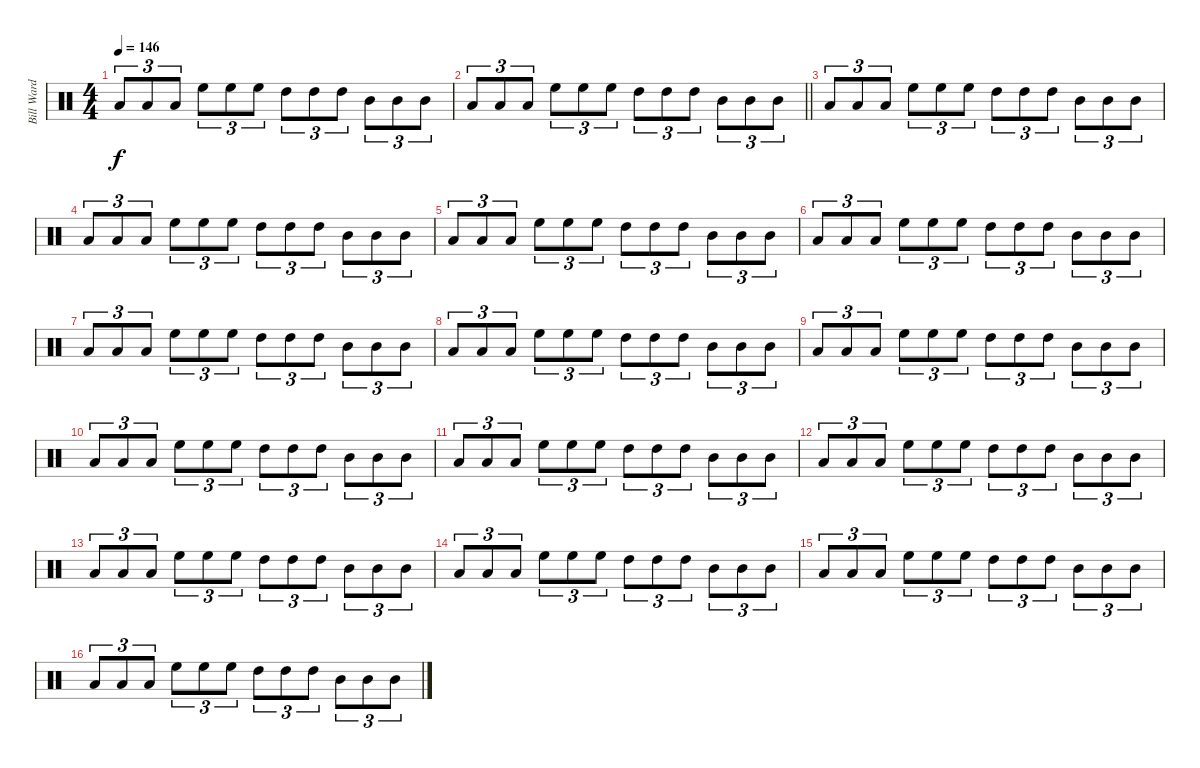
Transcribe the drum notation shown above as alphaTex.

\track ("Bill Ward - Drum Fills" "Bill Ward ") {instrument percussion}
\staff {score}
\articulation defaults
\ts (4 4)
\tempo 146
\clef neutral
\ks c "Low Tom (hit)".8{tu (3 2) dy f} "Low Tom (hit)".8{tu (3 2)} "Low Tom (hit)".8{tu (3 2)} "High Floor Tom (hit)".8{tu (3 2)} "High Floor Tom (hit)".8{tu (3 2)} "High Floor Tom (hit)".8{tu (3 2)} "High Tom (hit)".8{tu (3 2)} "High Tom (hit)".8{tu (3 2)} "High Tom (hit)".8{tu (3 2)} "Mid Tom (hit)".8{tu (3 2)} "Mid Tom (hit)".8{tu (3 2)} "Mid Tom (hit)".8{tu (3 2)}
|
\barLineRight lightlight "Low Tom (hit)".8{tu (3 2)} "Low Tom (hit)".8{tu (3 2)} "Low Tom (hit)".8{tu (3 2)} "High Floor Tom (hit)".8{tu (3 2)} "High Floor Tom (hit)".8{tu (3 2)} "High Floor Tom (hit)".8{tu (3 2)} "High Tom (hit)".8{tu (3 2)} "High Tom (hit)".8{tu (3 2)} "High Tom (hit)".8{tu (3 2)} "Mid Tom (hit)".8{tu (3 2)} "Mid Tom (hit)".8{tu (3 2)} "Mid Tom (hit)".8{tu (3 2)}
|
"Low Tom (hit)".8{tu (3 2)} "Low Tom (hit)".8{tu (3 2)} "Low Tom (hit)".8{tu (3 2)} "High Floor Tom (hit)".8{tu (3 2)} "High Floor Tom (hit)".8{tu (3 2)} "High Floor Tom (hit)".8{tu (3 2)} "High Tom (hit)".8{tu (3 2)} "High Tom (hit)".8{tu (3 2)} "High Tom (hit)".8{tu (3 2)} "Mid Tom (hit)".8{tu (3 2)} "Mid Tom (hit)".8{tu (3 2)} "Mid Tom (hit)".8{tu (3 2)} |
"Low Tom (hit)".8{tu (3 2)} "Low Tom (hit)".8{tu (3 2)} "Low Tom (hit)".8{tu (3 2)} "High Floor Tom (hit)".8{tu (3 2)} "High Floor Tom (hit)".8{tu (3 2)} "High Floor Tom (hit)".8{tu (3 2)} "High Tom (hit)".8{tu (3 2)} "High Tom (hit)".8{tu (3 2)} "High Tom (hit)".8{tu (3 2)} "Mid Tom (hit)".8{tu (3 2)} "Mid Tom (hit)".8{tu (3 2)} "Mid Tom (hit)".8{tu (3 2)} |
"Low Tom (hit)".8{tu (3 2)} "Low Tom (hit)".8{tu (3 2)} "Low Tom (hit)".8{tu (3 2)} "High Floor Tom (hit)".8{tu (3 2)} "High Floor Tom (hit)".8{tu (3 2)} "High Floor Tom (hit)".8{tu (3 2)} "High Tom (hit)".8{tu (3 2)} "High Tom (hit)".8{tu (3 2)} "High Tom (hit)".8{tu (3 2)} "Mid Tom (hit)".8{tu (3 2)} "Mid Tom (hit)".8{tu (3 2)} "Mid Tom (hit)".8{tu (3 2)} |
"Low Tom (hit)".8{tu (3 2)} "Low Tom (hit)".8{tu (3 2)} "Low Tom (hit)".8{tu (3 2)} "High Floor Tom (hit)".8{tu (3 2)} "High Floor Tom (hit)".8{tu (3 2)} "High Floor Tom (hit)".8{tu (3 2)} "High Tom (hit)".8{tu (3 2)} "High Tom (hit)".8{tu (3 2)} "High Tom (hit)".8{tu (3 2)} "Mid Tom (hit)".8{tu (3 2)} "Mid Tom (hit)".8{tu (3 2)} "Mid Tom (hit)".8{tu (3 2)} |
"Low Tom (hit)".8{tu (3 2)} "Low Tom (hit)".8{tu (3 2)} "Low Tom (hit)".8{tu (3 2)} "High Floor Tom (hit)".8{tu (3 2)} "High Floor Tom (hit)".8{tu (3 2)} "High Floor Tom (hit)".8{tu (3 2)} "High Tom (hit)".8{tu (3 2)} "High Tom (hit)".8{tu (3 2)} "High Tom (hit)".8{tu (3 2)} "Mid Tom (hit)".8{tu (3 2)} "Mid Tom (hit)".8{tu (3 2)} "Mid Tom (hit)".8{tu (3 2)} |
"Low Tom (hit)".8{tu (3 2)} "Low Tom (hit)".8{tu (3 2)} "Low Tom (hit)".8{tu (3 2)} "High Floor Tom (hit)".8{tu (3 2)} "High Floor Tom (hit)".8{tu (3 2)} "High Floor Tom (hit)".8{tu (3 2)} "High Tom (hit)".8{tu (3 2)} "High Tom (hit)".8{tu (3 2)} "High Tom (hit)".8{tu (3 2)} "Mid Tom (hit)".8{tu (3 2)} "Mid Tom (hit)".8{tu (3 2)} "Mid Tom (hit)".8{tu (3 2)} |
"Low Tom (hit)".8{tu (3 2)} "Low Tom (hit)".8{tu (3 2)} "Low Tom (hit)".8{tu (3 2)} "High Floor Tom (hit)".8{tu (3 2)} "High Floor Tom (hit)".8{tu (3 2)} "High Floor Tom (hit)".8{tu (3 2)} "High Tom (hit)".8{tu (3 2)} "High Tom (hit)".8{tu (3 2)} "High Tom (hit)".8{tu (3 2)} "Mid Tom (hit)".8{tu (3 2)} "Mid Tom (hit)".8{tu (3 2)} "Mid Tom (hit)".8{tu (3 2)} |
"Low Tom (hit)".8{tu (3 2)} "Low Tom (hit)".8{tu (3 2)} "Low Tom (hit)".8{tu (3 2)} "High Floor Tom (hit)".8{tu (3 2)} "High Floor Tom (hit)".8{tu (3 2)} "High Floor Tom (hit)".8{tu (3 2)} "High Tom (hit)".8{tu (3 2)} "High Tom (hit)".8{tu (3 2)} "High Tom (hit)".8{tu (3 2)} "Mid Tom (hit)".8{tu (3 2)} "Mid Tom (hit)".8{tu (3 2)} "Mid Tom (hit)".8{tu (3 2)} |
"Low Tom (hit)".8{tu (3 2)} "Low Tom (hit)".8{tu (3 2)} "Low Tom (hit)".8{tu (3 2)} "High Floor Tom (hit)".8{tu (3 2)} "High Floor Tom (hit)".8{tu (3 2)} "High Floor Tom (hit)".8{tu (3 2)} "High Tom (hit)".8{tu (3 2)} "High Tom (hit)".8{tu (3 2)} "High Tom (hit)".8{tu (3 2)} "Mid Tom (hit)".8{tu (3 2)} "Mid Tom (hit)".8{tu (3 2)} "Mid Tom (hit)".8{tu (3 2)} |
"Low Tom (hit)".8{tu (3 2)} "Low Tom (hit)".8{tu (3 2)} "Low Tom (hit)".8{tu (3 2)} "High Floor Tom (hit)".8{tu (3 2)} "High Floor Tom (hit)".8{tu (3 2)} "High Floor Tom (hit)".8{tu (3 2)} "High Tom (hit)".8{tu (3 2)} "High Tom (hit)".8{tu (3 2)} "High Tom (hit)".8{tu (3 2)} "Mid Tom (hit)".8{tu (3 2)} "Mid Tom (hit)".8{tu (3 2)} "Mid Tom (hit)".8{tu (3 2)} |
"Low Tom (hit)".8{tu (3 2)} "Low Tom (hit)".8{tu (3 2)} "Low Tom (hit)".8{tu (3 2)} "High Floor Tom (hit)".8{tu (3 2)} "High Floor Tom (hit)".8{tu (3 2)} "High Floor Tom (hit)".8{tu (3 2)} "High Tom (hit)".8{tu (3 2)} "High Tom (hit)".8{tu (3 2)} "High Tom (hit)".8{tu (3 2)} "Mid Tom (hit)".8{tu (3 2)} "Mid Tom (hit)".8{tu (3 2)} "Mid Tom (hit)".8{tu (3 2)} |
"Low Tom (hit)".8{tu (3 2)} "Low Tom (hit)".8{tu (3 2)} "Low Tom (hit)".8{tu (3 2)} "High Floor Tom (hit)".8{tu (3 2)} "High Floor Tom (hit)".8{tu (3 2)} "High Floor Tom (hit)".8{tu (3 2)} "High Tom (hit)".8{tu (3 2)} "High Tom (hit)".8{tu (3 2)} "High Tom (hit)".8{tu (3 2)} "Mid Tom (hit)".8{tu (3 2)} "Mid Tom (hit)".8{tu (3 2)} "Mid Tom (hit)".8{tu (3 2)} |
"Low Tom (hit)".8{tu (3 2)} "Low Tom (hit)".8{tu (3 2)} "Low Tom (hit)".8{tu (3 2)} "High Floor Tom (hit)".8{tu (3 2)} "High Floor Tom (hit)".8{tu (3 2)} "High Floor Tom (hit)".8{tu (3 2)} "High Tom (hit)".8{tu (3 2)} "High Tom (hit)".8{tu (3 2)} "High Tom (hit)".8{tu (3 2)} "Mid Tom (hit)".8{tu (3 2)} "Mid Tom (hit)".8{tu (3 2)} "Mid Tom (hit)".8{tu (3 2)} |
"Low Tom (hit)".8{tu (3 2)} "Low Tom (hit)".8{tu (3 2)} "Low Tom (hit)".8{tu (3 2)} "High Floor Tom (hit)".8{tu (3 2)} "High Floor Tom (hit)".8{tu (3 2)} "High Floor Tom (hit)".8{tu (3 2)} "High Tom (hit)".8{tu (3 2)} "High Tom (hit)".8{tu (3 2)} "High Tom (hit)".8{tu (3 2)} "Mid Tom (hit)".8{tu (3 2)} "Mid Tom (hit)".8{tu (3 2)} "Mid Tom (hit)".8{tu (3 2)}
